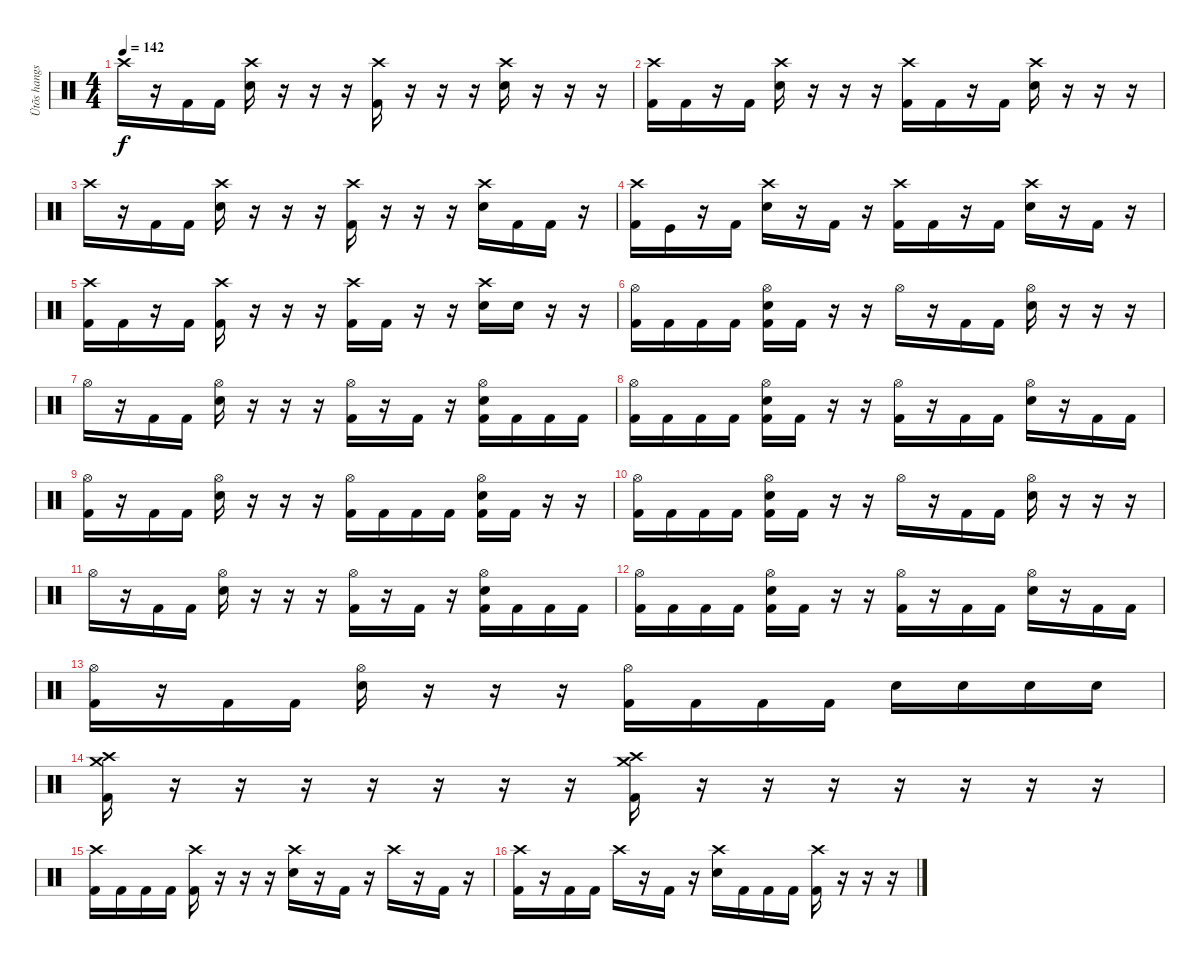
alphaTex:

\track ("Ütõs hangszer" "Ütõs hangs") {instrument percussion}
\staff {score}
\articulation defaults
\ts (4 4)
\tempo 142
\clef neutral
\ks c "Crash high (hit)".16{dy f}
r.16 "Kick (hit) 2".16 "Kick (hit) 2".16 ("Crash high (hit)" "Electric Snare (hit)").16 r.16 r.16 r.16 ("Crash high (hit)" "Kick (hit) 2").16 r.16 r.16 r.16 ("Crash high (hit)" "Electric Snare (hit)").16 r.16 r.16 r.16 |
("Crash high (hit)" "Kick (hit) 2").16 "Kick (hit) 2".16 r.16 "Kick (hit) 2".16 ("Crash high (hit)" "Electric Snare (hit)").16 r.16 r.16 r.16 ("Crash high (hit)" "Kick (hit) 2").16 "Kick (hit) 2".16 r.16 "Kick (hit) 2".16 ("Crash high (hit)" "Electric Snare (hit)").16 r.16 r.16 r.16 |
"Crash high (hit)".16 r.16 "Kick (hit) 2".16 "Kick (hit) 2".16 ("Crash high (hit)" "Electric Snare (hit)").16 r.16 r.16 r.16 ("Crash high (hit)" "Kick (hit) 2").16 r.16 r.16 r.16 ("Crash high (hit)" "Electric Snare (hit)").16 "Kick (hit) 2".16 "Kick (hit) 2".16 r.16 |
("Crash high (hit)" "Kick (hit) 2").16 "Kick (hit)".16 r.16 "Kick (hit) 2".16 ("Crash high (hit)" "Electric Snare (hit)").16 r.16 "Kick (hit) 2".16 r.16 ("Crash high (hit)" "Kick (hit) 2").16 "Kick (hit) 2".16 r.16 "Kick (hit) 2".16 ("Crash high (hit)" "Electric Snare (hit)").16 r.16 "Kick (hit) 2".16 r.16 |
("Crash high (hit)" "Kick (hit) 2").16 "Kick (hit) 2".16 r.16 "Kick (hit) 2".16 ("Crash high (hit)" "Kick (hit) 2").16 r.16 r.16 r.16 ("Crash high (hit)" "Kick (hit) 2").16 "Kick (hit) 2".16 r.16 r.16 ("Crash high (hit)" "Electric Snare (hit)").16 "Electric Snare (hit)".16 r.16 r.16 |
("Hi-Hat (open)" "Kick (hit) 2").16 "Kick (hit) 2".16 "Kick (hit) 2".16 "Kick (hit) 2".16 ("Hi-Hat (open)" "Electric Snare (hit)" "Kick (hit) 2").16 "Kick (hit) 2".16 r.16 r.16 "Hi-Hat (open)".16 r.16 "Kick (hit) 2".16 "Kick (hit) 2".16 ("Hi-Hat (open)" "Electric Snare (hit)").16 r.16 r.16 r.16 |
"Hi-Hat (open)".16 r.16 "Kick (hit) 2".16 "Kick (hit) 2".16 ("Hi-Hat (open)" "Electric Snare (hit)").16 r.16 r.16 r.16 ("Hi-Hat (open)" "Kick (hit) 2").16 r.16 "Kick (hit) 2".16 r.16 ("Hi-Hat (open)" "Electric Snare (hit)" "Kick (hit) 2").16 "Kick (hit) 2".16 "Kick (hit) 2".16 "Kick (hit) 2".16 |
("Hi-Hat (open)" "Kick (hit) 2").16 "Kick (hit) 2".16 "Kick (hit) 2".16 "Kick (hit) 2".16 ("Hi-Hat (open)" "Electric Snare (hit)" "Kick (hit) 2").16 "Kick (hit) 2".16 r.16 r.16 ("Hi-Hat (open)" "Kick (hit) 2").16 r.16 "Kick (hit) 2".16 "Kick (hit) 2".16 ("Hi-Hat (open)" "Electric Snare (hit)").16 r.16 "Kick (hit) 2".16 "Kick (hit) 2".16 |
("Hi-Hat (open)" "Kick (hit) 2").16 r.16 "Kick (hit) 2".16 "Kick (hit) 2".16 ("Hi-Hat (open)" "Electric Snare (hit)").16 r.16 r.16 r.16 ("Hi-Hat (open)" "Kick (hit) 2").16 "Kick (hit) 2".16 "Kick (hit) 2".16 "Kick (hit) 2".16 ("Hi-Hat (open)" "Electric Snare (hit)" "Kick (hit) 2").16 "Kick (hit) 2".16 r.16 r.16 |
("Hi-Hat (open)" "Kick (hit) 2").16 "Kick (hit) 2".16 "Kick (hit) 2".16 "Kick (hit) 2".16 ("Hi-Hat (open)" "Electric Snare (hit)" "Kick (hit) 2").16 "Kick (hit) 2".16 r.16 r.16 "Hi-Hat (open)".16 r.16 "Kick (hit) 2".16 "Kick (hit) 2".16 ("Hi-Hat (open)" "Electric Snare (hit)").16 r.16 r.16 r.16 |
"Hi-Hat (open)".16 r.16 "Kick (hit) 2".16 "Kick (hit) 2".16 ("Hi-Hat (open)" "Electric Snare (hit)").16 r.16 r.16 r.16 ("Hi-Hat (open)" "Kick (hit) 2").16 r.16 "Kick (hit) 2".16 r.16 ("Hi-Hat (open)" "Electric Snare (hit)" "Kick (hit) 2").16 "Kick (hit) 2".16 "Kick (hit) 2".16 "Kick (hit) 2".16 |
("Hi-Hat (open)" "Kick (hit) 2").16 "Kick (hit) 2".16 "Kick (hit) 2".16 "Kick (hit) 2".16 ("Hi-Hat (open)" "Electric Snare (hit)" "Kick (hit) 2").16 "Kick (hit) 2".16 r.16 r.16 ("Hi-Hat (open)" "Kick (hit) 2").16 r.16 "Kick (hit) 2".16 "Kick (hit) 2".16 ("Hi-Hat (open)" "Electric Snare (hit)").16 r.16 "Kick (hit) 2".16 "Kick (hit) 2".16 |
("Hi-Hat (open)" "Kick (hit) 2").16 r.16 "Kick (hit) 2".16 "Kick (hit) 2".16 ("Hi-Hat (open)" "Electric Snare (hit)").16 r.16 r.16 r.16 ("Hi-Hat (open)" "Kick (hit) 2").16 "Kick (hit) 2".16 "Kick (hit) 2".16 "Kick (hit) 2".16 "Electric Snare (hit)".16 "Electric Snare (hit)".16 "Electric Snare (hit)".16 "Electric Snare (hit)".16 |
("Crash high (hit)" "Crash medium (hit)" "Kick (hit) 2").16 r.16 r.16 r.16 r.16 r.16 r.16 r.16 ("Crash high (hit)" "Crash medium (hit)" "Kick (hit) 2").16 r.16 r.16 r.16 r.16 r.16 r.16 r.16 |
("Crash high (hit)" "Kick (hit) 2").16 "Kick (hit) 2".16 "Kick (hit) 2".16 "Kick (hit) 2".16 ("Crash high (hit)" "Kick (hit) 2").16 r.16 r.16 r.16 ("Crash high (hit)" "Electric Snare (hit)").16 r.16 "Kick (hit) 2".16 r.16 "Crash high (hit)".16 r.16 "Kick (hit) 2".16 r.16 |
("Crash high (hit)" "Kick (hit) 2").16 r.16 "Kick (hit) 2".16 "Kick (hit) 2".16 "Crash high (hit)".16 r.16 "Kick (hit) 2".16 r.16 ("Crash high (hit)" "Electric Snare (hit)").16 "Kick (hit) 2".16 "Kick (hit) 2".16 "Kick (hit) 2".16 ("Crash high (hit)" "Kick (hit) 2").16 r.16 r.16 r.16
